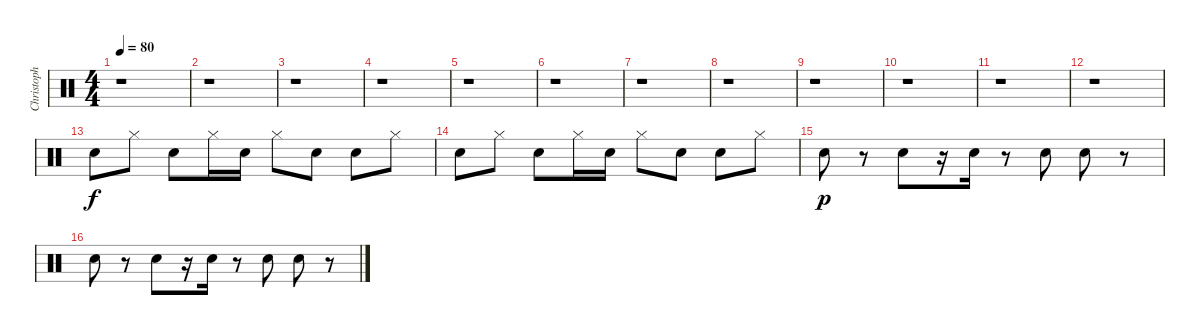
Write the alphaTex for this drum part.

\track ("Christoph DOOM Schneider" "Christoph ") {instrument percussion}
\staff {score}
\articulation defaults
\ts (4 4)
\tempo 80
\clef neutral
\ks c
r.1{dy f} |
r.1 |
r.1 |
r.1 |
r.1 |
r.1 |
r.1 |
r.1 |
r.1 |
r.1 |
r.1 |
r.1 |
"Electric Snare (hit)".8 "Hi-Hat (closed)".8 "Hand Clap (hit)".8 "Hi-Hat (closed)".16 "Electric Snare (hit)".16 "Hi-Hat (closed)".8 "Electric Snare (hit)".8 "Hand Clap (hit)".8 "Hi-Hat (closed)".8 |
"Electric Snare (hit)".8 "Hi-Hat (closed)".8 "Hand Clap (hit)".8 "Hi-Hat (closed)".16 "Electric Snare (hit)".16 "Hi-Hat (closed)".8 "Electric Snare (hit)".8 "Hand Clap (hit)".8 "Hi-Hat (closed)".8 |
"Electric Snare (hit)".8{dy p} r.8 "Hand Clap (hit)".8 r.16 "Electric Snare (hit)".16 r.8 "Electric Snare (hit)".8 "Hand Clap (hit)".8 r.8 |
"Electric Snare (hit)".8 r.8 "Hand Clap (hit)".8 r.16 "Electric Snare (hit)".16 r.8 "Electric Snare (hit)".8 "Hand Clap (hit)".8 r.8
